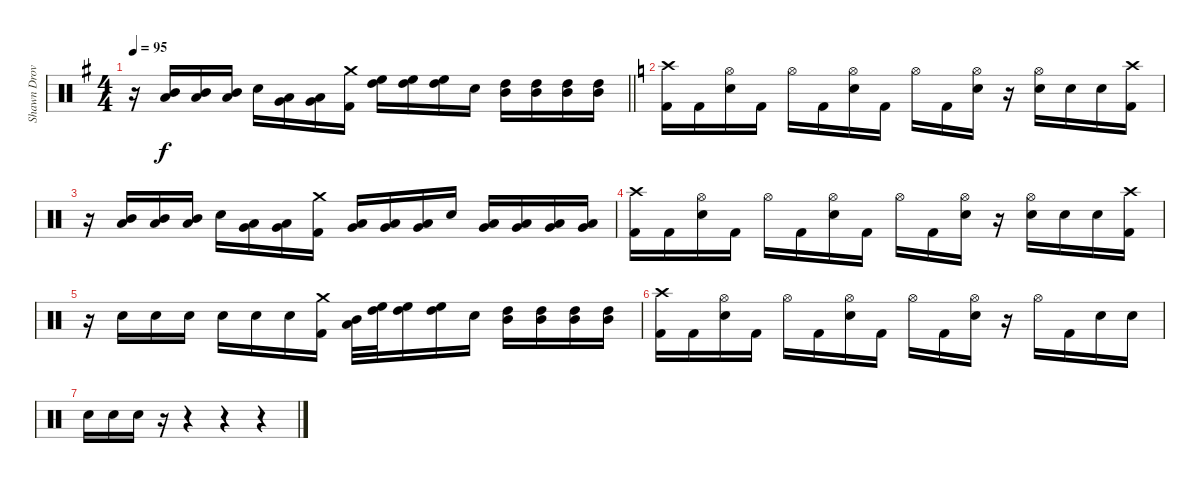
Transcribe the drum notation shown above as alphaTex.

\track ("Shawn Drover" "Shawn Drov") {instrument percussion}
\staff {score}
\articulation defaults
\ts (4 4)
\tempo 95
\clef neutral
\barLineRight lightlight
\ks g
r.16{dy f} ("Mid Tom (hit)" "Low Tom (hit)").16 ("Mid Tom (hit)" "Low Tom (hit)").16 ("Mid Tom (hit)" "Low Tom (hit)").16 "Snare (hit) 2".16 ("Low Tom (hit)" "Very Low Tom (hit)").16 ("Low Tom (hit)" "Very Low Tom (hit)").16 ("Crash medium (hit)" "Kick (hit) 2").16 ("High Tom (hit)" "High Floor Tom (hit)").16 ("High Tom (hit)" "High Floor Tom (hit)").16 ("High Tom (hit)" "High Floor Tom (hit)").16 "Snare (hit) 2".16 ("High Tom (hit)" "Mid Tom (hit)").16 ("High Tom (hit)" "Mid Tom (hit)").16 ("High Tom (hit)" "Mid Tom (hit)").16 ("High Tom (hit)" "Mid Tom (hit)").16 |
\ks c
("Crash high (hit)" "Kick (hit) 2").16 "Kick (hit) 2".16 ("Hi-Hat (open)" "Snare (hit) 2").16 "Kick (hit) 2".16 "Hi-Hat (open)".16 "Kick (hit) 2".16 ("Hi-Hat (open)" "Snare (hit) 2").16 "Kick (hit) 2".16 "Hi-Hat (open)".16 "Kick (hit) 2".16 ("Hi-Hat (open)" "Snare (hit) 2").16 r.16 ("Hi-Hat (open)" "Snare (hit) 2").16 "Snare (hit) 2".16 "Snare (hit) 2".16 ("Crash high (hit)" "Kick (hit) 2").16 |
r.16 ("Mid Tom (hit)" "Low Tom (hit)").16 ("Mid Tom (hit)" "Low Tom (hit)").16 ("Mid Tom (hit)" "Low Tom (hit)").16 "Snare (hit) 2".16 ("Low Tom (hit)" "Very Low Tom (hit)").16 ("Low Tom (hit)" "Very Low Tom (hit)").16 ("Crash medium (hit)" "Kick (hit) 2").16 ("Low Tom (hit)" "Very Low Tom (hit)").16 ("Low Tom (hit)" "Very Low Tom (hit)").16 ("Low Tom (hit)" "Very Low Tom (hit)").16 "Snare (hit) 2".16 ("Very Low Tom (hit)" "Low Floor Tom (hit)").16 ("Very Low Tom (hit)" "Low Floor Tom (hit)").16 ("Very Low Tom (hit)" "Low Floor Tom (hit)").16 ("Very Low Tom (hit)" "Low Floor Tom (hit)").16 |
("Crash high (hit)" "Kick (hit) 2").16 "Kick (hit) 2".16 ("Hi-Hat (open)" "Snare (hit) 2").16 "Kick (hit) 2".16 "Hi-Hat (open)".16 "Kick (hit) 2".16 ("Hi-Hat (open)" "Snare (hit) 2").16 "Kick (hit) 2".16 "Hi-Hat (open)".16 "Kick (hit) 2".16 ("Hi-Hat (open)" "Snare (hit) 2").16 r.16 ("Hi-Hat (open)" "Snare (hit) 2").16 "Snare (hit) 2".16 "Snare (hit) 2".16 ("Crash high (hit)" "Kick (hit) 2").16 |
r.16 "Snare (hit) 2".16 "Snare (hit) 2".16 "Snare (hit) 2".16 "Snare (hit) 2".16 "Snare (hit) 2".16 "Snare (hit) 2".16 ("Crash medium (hit)" "Kick (hit) 2").16 ("Low Tom (hit)" "Mid Tom (hit)").32 ("High Tom (hit)" "High Floor Tom (hit)").32 ("High Tom (hit)" "High Floor Tom (hit)").16 ("High Tom (hit)" "High Floor Tom (hit)").16 "Snare (hit) 2".16 ("High Tom (hit)" "Mid Tom (hit)").16 ("High Tom (hit)" "Mid Tom (hit)").16 ("High Tom (hit)" "Mid Tom (hit)").16 ("High Tom (hit)" "Mid Tom (hit)").16 |
("Crash high (hit)" "Kick (hit) 2").16 "Kick (hit) 2".16 ("Hi-Hat (open)" "Snare (hit) 2").16 "Kick (hit) 2".16 "Hi-Hat (open)".16 "Kick (hit) 2".16 ("Hi-Hat (open)" "Snare (hit) 2").16 "Kick (hit) 2".16 "Hi-Hat (open)".16 "Kick (hit) 2".16 ("Hi-Hat (open)" "Snare (hit) 2").16 r.16 "Hi-Hat (open)".16 "Kick (hit) 2".16 "Snare (hit) 2".16 "Snare (hit) 2".16 |
"Snare (hit) 2".16 "Snare (hit) 2".16 "Snare (hit) 2".16 r.16 r.4 r.4 r.4
